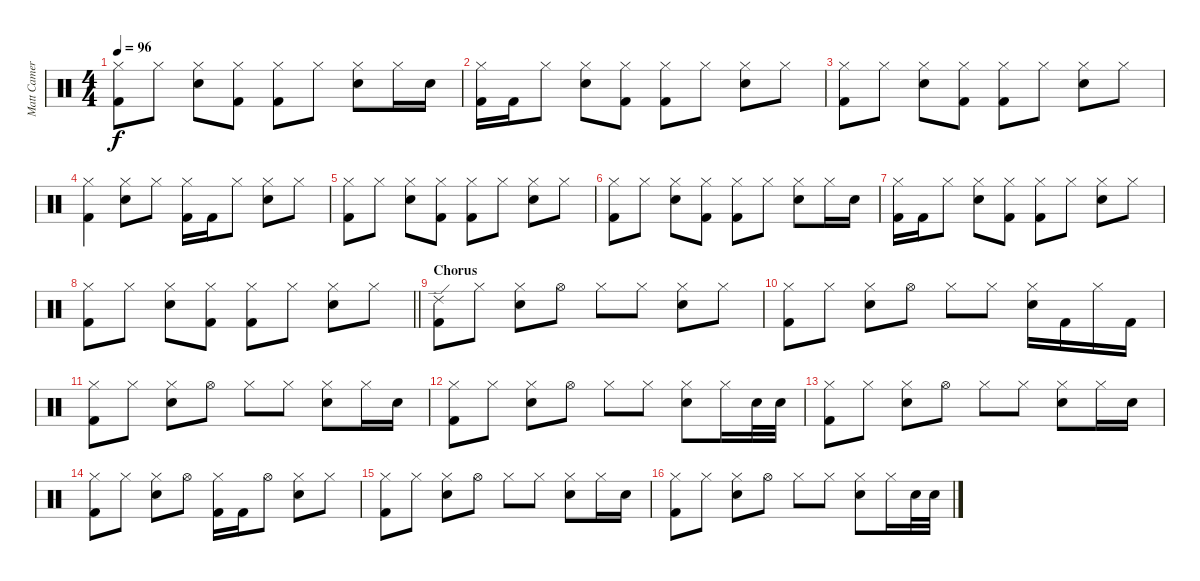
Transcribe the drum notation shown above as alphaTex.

\track ("Matt Cameron" "Matt Camer") {instrument percussion}
\staff {score}
\articulation defaults
\ts (4 4)
\tempo 96
\clef neutral
\ks c
("Hi-Hat (closed)" "Kick (hit) 2").8{dy f} "Hi-Hat (closed)".8 ("Hi-Hat (closed)" "Electric Snare (hit)").8 ("Hi-Hat (closed)" "Kick (hit) 2").8 ("Hi-Hat (closed)" "Kick (hit) 2").8 "Hi-Hat (closed)".8 ("Hi-Hat (closed)" "Electric Snare (hit)").8 "Hi-Hat (closed)".16 "Electric Snare (hit)".16 |
("Hi-Hat (closed)" "Kick (hit) 2").16 "Kick (hit) 2".16 "Hi-Hat (closed)".8 ("Hi-Hat (closed)" "Electric Snare (hit)").8 ("Hi-Hat (closed)" "Kick (hit) 2").8 ("Hi-Hat (closed)" "Kick (hit) 2").8 "Hi-Hat (closed)".8 ("Hi-Hat (closed)" "Electric Snare (hit)").8 "Hi-Hat (closed)".8 |
("Hi-Hat (closed)" "Kick (hit) 2").8 "Hi-Hat (closed)".8 ("Hi-Hat (closed)" "Electric Snare (hit)").8 ("Hi-Hat (closed)" "Kick (hit) 2").8 ("Hi-Hat (closed)" "Kick (hit) 2").8 "Hi-Hat (closed)".8 ("Hi-Hat (closed)" "Electric Snare (hit)").8 "Hi-Hat (closed)".8 |
("Hi-Hat (closed)" "Kick (hit) 2").4 ("Hi-Hat (closed)" "Electric Snare (hit)").8 "Hi-Hat (closed)".8 ("Hi-Hat (closed)" "Kick (hit) 2").16 "Kick (hit) 2".16 "Hi-Hat (closed)".8 ("Hi-Hat (closed)" "Electric Snare (hit)").8 "Hi-Hat (closed)".8 |
("Hi-Hat (closed)" "Kick (hit) 2").8 "Hi-Hat (closed)".8 ("Hi-Hat (closed)" "Electric Snare (hit)").8 ("Hi-Hat (closed)" "Kick (hit) 2").8 ("Hi-Hat (closed)" "Kick (hit) 2").8 "Hi-Hat (closed)".8 ("Hi-Hat (closed)" "Electric Snare (hit)").8 "Hi-Hat (closed)".8 |
("Hi-Hat (closed)" "Kick (hit) 2").8 "Hi-Hat (closed)".8 ("Hi-Hat (closed)" "Electric Snare (hit)").8 ("Hi-Hat (closed)" "Kick (hit) 2").8 ("Hi-Hat (closed)" "Kick (hit) 2").8 "Hi-Hat (closed)".8 ("Hi-Hat (closed)" "Electric Snare (hit)").8 "Hi-Hat (closed)".16 "Electric Snare (hit)".16 |
("Hi-Hat (closed)" "Kick (hit) 2").16 "Kick (hit) 2".16 "Hi-Hat (closed)".8 ("Hi-Hat (closed)" "Electric Snare (hit)").8 ("Hi-Hat (closed)" "Kick (hit) 2").8 ("Hi-Hat (closed)" "Kick (hit) 2").8 "Hi-Hat (closed)".8 ("Hi-Hat (closed)" "Electric Snare (hit)").8 "Hi-Hat (closed)".8 |
\barLineRight lightlight
("Hi-Hat (closed)" "Kick (hit) 2").8 "Hi-Hat (closed)".8 ("Hi-Hat (closed)" "Electric Snare (hit)").8 ("Hi-Hat (closed)" "Kick (hit) 2").8 ("Hi-Hat (closed)" "Kick (hit) 2").8 "Hi-Hat (closed)".8 ("Hi-Hat (closed)" "Electric Snare (hit)").8 "Hi-Hat (closed)".8 |
\section ("" "Chorus")
("Ride (edge) 2" "Kick (hit) 2").8 "Hi-Hat (closed)".8 ("Hi-Hat (closed)" "Electric Snare (hit)").8 "Hi-Hat (open)".8 "Hi-Hat (closed)".8 "Hi-Hat (closed)".8 ("Hi-Hat (closed)" "Electric Snare (hit)").8 "Hi-Hat (closed)".8 |
("Hi-Hat (closed)" "Kick (hit) 2").8 "Hi-Hat (closed)".8 ("Hi-Hat (closed)" "Electric Snare (hit)").8 "Hi-Hat (open)".8 "Hi-Hat (closed)".8 "Hi-Hat (closed)".8 ("Hi-Hat (closed)" "Electric Snare (hit)").16 "Kick (hit) 2".16 "Hi-Hat (closed)".16 "Kick (hit) 2".16 |
("Hi-Hat (closed)" "Kick (hit) 2").8 "Hi-Hat (closed)".8 ("Hi-Hat (closed)" "Electric Snare (hit)").8 "Hi-Hat (open)".8 "Hi-Hat (closed)".8 "Hi-Hat (closed)".8 ("Hi-Hat (closed)" "Electric Snare (hit)").8 "Hi-Hat (closed)".16 "Electric Snare (hit)".16 |
("Hi-Hat (closed)" "Kick (hit) 2").8 "Hi-Hat (closed)".8 ("Hi-Hat (closed)" "Electric Snare (hit)").8 "Hi-Hat (open)".8 "Hi-Hat (closed)".8 "Hi-Hat (closed)".8 ("Hi-Hat (closed)" "Electric Snare (hit)").8 "Hi-Hat (closed)".16 "Electric Snare (hit)".32 "Electric Snare (hit)".32 |
("Hi-Hat (closed)" "Kick (hit) 2").8 "Hi-Hat (closed)".8 ("Hi-Hat (closed)" "Electric Snare (hit)").8 "Hi-Hat (open)".8 "Hi-Hat (closed)".8 "Hi-Hat (closed)".8 ("Hi-Hat (closed)" "Electric Snare (hit)").8 "Hi-Hat (closed)".16 "Electric Snare (hit)".16 |
("Hi-Hat (closed)" "Kick (hit) 2").8 "Hi-Hat (closed)".8 ("Hi-Hat (closed)" "Electric Snare (hit)").8 "Hi-Hat (open)".8 ("Hi-Hat (closed)" "Kick (hit) 2").16 "Kick (hit) 2".16 "Hi-Hat (open)".8 ("Hi-Hat (closed)" "Electric Snare (hit)").8 "Hi-Hat (closed)".8 |
("Hi-Hat (closed)" "Kick (hit) 2").8 "Hi-Hat (closed)".8 ("Hi-Hat (closed)" "Electric Snare (hit)").8 "Hi-Hat (open)".8 "Hi-Hat (closed)".8 "Hi-Hat (closed)".8 ("Hi-Hat (closed)" "Electric Snare (hit)").8 "Hi-Hat (closed)".16 "Electric Snare (hit)".16 |
("Hi-Hat (closed)" "Kick (hit) 2").8 "Hi-Hat (closed)".8 ("Hi-Hat (closed)" "Electric Snare (hit)").8 "Hi-Hat (open)".8 "Hi-Hat (closed)".8 "Hi-Hat (closed)".8 ("Hi-Hat (closed)" "Electric Snare (hit)").8 "Hi-Hat (closed)".16 "Electric Snare (hit)".32 "Electric Snare (hit)".32
